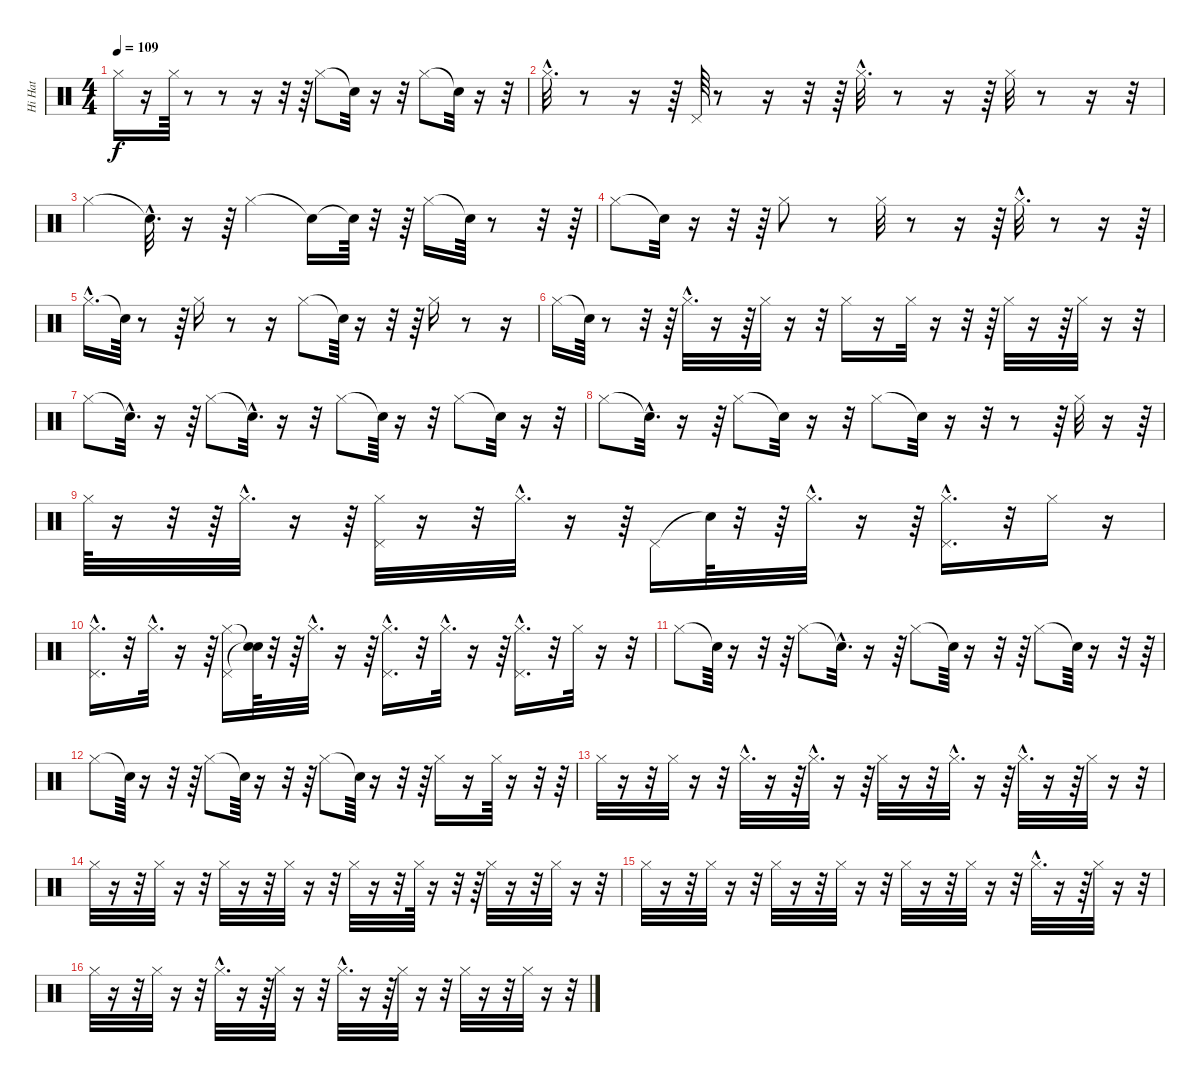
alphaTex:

\track ("Hi Hat" "Hi Hat") {instrument percussion}
\staff {score}
\articulation defaults
\ts (4 4)
\tempo 109
\clef neutral
\ks c "Hi-Hat (closed)".16{dy f}
r.16 "Hi-Hat (closed)".64 r.8 r.8 r.16 r.32 r.64 "Hi-Hat (closed)".8 "Snare (hit)"{t}.32 r.16 r.32 "Hi-Hat (closed)".8 "Snare (hit)"{t}.32 r.16 r.32 |
"Hi-Hat (closed)"{hac}.32{d} r.8 r.16 r.64 "Pedal Hi-Hat (hit)".64 r.8 r.16 r.32 r.64 "Hi-Hat (closed)"{hac}.32{d} r.8 r.16 r.64 "Hi-Hat (closed)".32 r.8 r.16 r.32 |
"Hi-Hat (closed)".4 "Snare (hit)"{hac t}.32{d} r.16 r.64 "Hi-Hat (closed)".4 "Snare (hit)"{t}.16 "Snare (hit)"{t}.64 r.32 r.64 "Hi-Hat (closed)".16 "Snare (hit)"{t}.64 r.8 r.32 r.64 |
"Hi-Hat (closed)".8 "Snare (hit)"{t}.32 r.16 r.32 r.64 "Hi-Hat (closed)".8 r.8 "Hi-Hat (closed)".32 r.8 r.16 r.64 "Hi-Hat (closed)"{hac}.32{d} r.8 r.16 r.64 |
"Hi-Hat (closed)"{hac}.16{d} "Snare (hit)"{t}.64 r.8 r.64 "Hi-Hat (closed)".16 r.8 r.16 "Hi-Hat (closed)".8 "Snare (hit)"{t}.64 r.16 r.32 r.64 "Hi-Hat (closed)".16 r.8 r.16 |
"Hi-Hat (closed)".16 "Snare (hit)"{t}.64 r.8 r.32 r.64 "Hi-Hat (closed)"{hac}.32{d} r.16 r.64 "Hi-Hat (closed)".32 r.16 r.32 "Hi-Hat (closed)".16 r.16 "Hi-Hat (closed)".32 r.16 r.32 r.64 "Hi-Hat (closed)".32 r.16 r.64 "Hi-Hat (closed)".32 r.16 r.32 |
"Hi-Hat (closed)".8 "Snare (hit)"{hac t}.32{d} r.16 r.64 "Hi-Hat (closed)".8 "Snare (hit)"{hac t}.32{d} r.16 r.32 "Hi-Hat (closed)".8 "Snare (hit)"{t}.64 r.16 r.32 "Hi-Hat (closed)".8 "Snare (hit)"{t}.32 r.16 r.32 |
"Hi-Hat (closed)".8 "Snare (hit)"{hac t}.32{d} r.16 r.64 "Hi-Hat (closed)".8 "Snare (hit)"{t}.32 r.16 r.32 "Hi-Hat (closed)".8 "Snare (hit)"{t}.32 r.16 r.32 r.8 r.64 "Hi-Hat (closed)".32 r.16 r.64 |
"Hi-Hat (closed)".64 r.16 r.32 r.64 "Hi-Hat (closed)"{hac}.32{d} r.16 r.64 ("Hi-Hat (closed)" "Pedal Hi-Hat (hit)").32 r.16 r.32 "Hi-Hat (closed)"{hac}.32{d} r.16 r.64 "Pedal Hi-Hat (hit)".16 "Snare (hit)"{t}.64 r.32 r.64 "Hi-Hat (closed)"{hac}.32{d} r.16 r.64 ("Hi-Hat (closed)"{hac} "Pedal Hi-Hat (hit)"{hac}).16{d} r.32 "Hi-Hat (closed)".16 r.16 |
("Hi-Hat (closed)"{hac} "Pedal Hi-Hat (hit)"{hac}).16{d} r.32 "Hi-Hat (closed)"{hac}.32{d} r.16 r.64 ("Hi-Hat (closed)" "Pedal Hi-Hat (hit)").16 ("Snare (hit)"{t} "Snare (hit)"{t}).64 r.32 r.64 "Hi-Hat (closed)"{hac}.32{d} r.16 r.64 ("Hi-Hat (closed)"{hac} "Pedal Hi-Hat (hit)"{hac}).16{d} r.32 "Hi-Hat (closed)"{hac}.32{d} r.16 r.64 ("Hi-Hat (closed)"{hac} "Pedal Hi-Hat (hit)"{hac}).16{d} r.32 "Hi-Hat (closed)".32 r.16 r.32 |
"Hi-Hat (closed)".8 "Snare (hit)"{t}.64 r.16 r.32 r.64 "Hi-Hat (closed)".8 "Snare (hit)"{hac t}.32{d} r.16 r.64 "Hi-Hat (closed)".8 "Snare (hit)"{t}.64 r.16 r.32 r.64 "Hi-Hat (closed)".8 "Snare (hit)"{t}.64 r.16 r.32 r.64 |
"Hi-Hat (closed)".8 "Snare (hit)"{t}.64 r.16 r.32 r.64 "Hi-Hat (closed)".8 "Snare (hit)"{t}.64 r.16 r.32 r.64 "Hi-Hat (closed)".8 "Snare (hit)"{t}.64 r.16 r.32 r.64 "Hi-Hat (closed)".16 r.16 "Hi-Hat (closed)".64 r.16 r.32 r.64 |
"Hi-Hat (closed)".32 r.16 r.32 "Hi-Hat (closed)".32 r.16 r.32 "Hi-Hat (closed)"{hac}.32{d} r.16 r.64 "Hi-Hat (closed)"{hac}.32{d} r.16 r.64 "Hi-Hat (closed)".32 r.16 r.32 "Hi-Hat (closed)"{hac}.32{d} r.16 r.64 "Hi-Hat (closed)"{hac}.32{d} r.16 r.64 "Hi-Hat (closed)".32 r.16 r.32 |
"Hi-Hat (closed)".32 r.16 r.32 "Hi-Hat (closed)".32 r.16 r.32 "Hi-Hat (closed)".32 r.16 r.32 "Hi-Hat (closed)".32 r.16 r.32 "Hi-Hat (closed)".32 r.16 r.32 "Hi-Hat (closed)".64 r.16 r.32 r.64 "Hi-Hat (closed)".32 r.16 r.32 "Hi-Hat (closed)".32 r.16 r.32 |
"Hi-Hat (closed)".32 r.16 r.32 "Hi-Hat (closed)".32 r.16 r.32 "Hi-Hat (closed)".32 r.16 r.32 "Hi-Hat (closed)".32 r.16 r.32 "Hi-Hat (closed)".32 r.16 r.32 "Hi-Hat (closed)".32 r.16 r.32 "Hi-Hat (closed)"{hac}.32{d} r.16 r.64 "Hi-Hat (closed)".32 r.16 r.32 |
"Hi-Hat (closed)".32 r.16 r.32 "Hi-Hat (closed)".32 r.16 r.32 "Hi-Hat (closed)"{hac}.32{d} r.16 r.64 "Hi-Hat (closed)".32 r.16 r.32 "Hi-Hat (closed)"{hac}.32{d} r.16 r.64 "Hi-Hat (closed)".32 r.16 r.32 "Hi-Hat (closed)".32 r.16 r.32 "Hi-Hat (closed)".32 r.16 r.32
